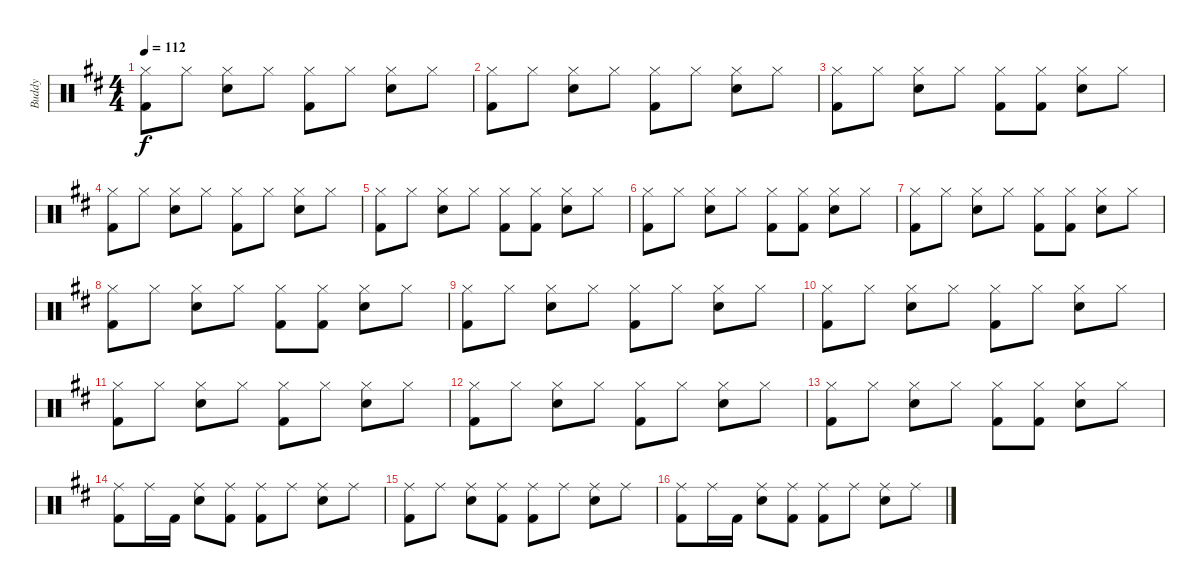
\track ("Buddy " "Buddy ") {instrument percussion}
\staff {score}
\articulation defaults
\ts (4 4)
\tempo 112
\clef neutral
\ks d
("Hi-Hat (closed)" "Kick (hit) 2").8{dy f} "Hi-Hat (closed)".8 ("Hi-Hat (closed)" "Snare (hit) 2").8 "Hi-Hat (closed)".8 ("Hi-Hat (closed)" "Kick (hit) 2").8 "Hi-Hat (closed)".8 ("Hi-Hat (closed)" "Snare (hit) 2").8 "Hi-Hat (closed)".8 |
("Hi-Hat (closed)" "Kick (hit) 2").8 "Hi-Hat (closed)".8 ("Hi-Hat (closed)" "Snare (hit) 2").8 "Hi-Hat (closed)".8 ("Hi-Hat (closed)" "Kick (hit) 2").8 "Hi-Hat (closed)".8 ("Hi-Hat (closed)" "Snare (hit) 2").8 "Hi-Hat (closed)".8 |
("Hi-Hat (closed)" "Kick (hit) 2").8 "Hi-Hat (closed)".8 ("Hi-Hat (closed)" "Snare (hit) 2").8 "Hi-Hat (closed)".8 ("Hi-Hat (closed)" "Kick (hit) 2").8 ("Hi-Hat (closed)" "Kick (hit) 2").8 ("Hi-Hat (closed)" "Snare (hit) 2").8 "Hi-Hat (closed)".8 |
("Hi-Hat (closed)" "Kick (hit) 2").8 "Hi-Hat (closed)".8 ("Hi-Hat (closed)" "Snare (hit) 2").8 "Hi-Hat (closed)".8 ("Hi-Hat (closed)" "Kick (hit) 2").8 "Hi-Hat (closed)".8 ("Hi-Hat (closed)" "Snare (hit) 2").8 "Hi-Hat (closed)".8 |
("Hi-Hat (closed)" "Kick (hit) 2").8 "Hi-Hat (closed)".8 ("Hi-Hat (closed)" "Snare (hit) 2").8 "Hi-Hat (closed)".8 ("Hi-Hat (closed)" "Kick (hit) 2").8 ("Hi-Hat (closed)" "Kick (hit) 2").8 ("Hi-Hat (closed)" "Snare (hit) 2").8 "Hi-Hat (closed)".8 |
("Hi-Hat (closed)" "Kick (hit) 2").8 "Hi-Hat (closed)".8 ("Hi-Hat (closed)" "Snare (hit) 2").8 "Hi-Hat (closed)".8 ("Hi-Hat (closed)" "Kick (hit) 2").8 ("Hi-Hat (closed)" "Kick (hit) 2").8 ("Hi-Hat (closed)" "Snare (hit) 2").8 "Hi-Hat (closed)".8 |
("Hi-Hat (closed)" "Kick (hit) 2").8 "Hi-Hat (closed)".8 ("Hi-Hat (closed)" "Snare (hit) 2").8 "Hi-Hat (closed)".8 ("Hi-Hat (closed)" "Kick (hit) 2").8 ("Hi-Hat (closed)" "Kick (hit) 2").8 ("Hi-Hat (closed)" "Snare (hit) 2").8 "Hi-Hat (closed)".8 |
("Hi-Hat (closed)" "Kick (hit) 2").8 "Hi-Hat (closed)".8 ("Hi-Hat (closed)" "Snare (hit) 2").8 "Hi-Hat (closed)".8 ("Hi-Hat (closed)" "Kick (hit) 2").8 ("Hi-Hat (closed)" "Kick (hit) 2").8 ("Hi-Hat (closed)" "Snare (hit) 2").8 "Hi-Hat (closed)".8 |
("Hi-Hat (closed)" "Kick (hit) 2").8 "Hi-Hat (closed)".8 ("Hi-Hat (closed)" "Snare (hit) 2").8 "Hi-Hat (closed)".8 ("Hi-Hat (closed)" "Kick (hit) 2").8 "Hi-Hat (closed)".8 ("Hi-Hat (closed)" "Snare (hit) 2").8 "Hi-Hat (closed)".8 |
("Hi-Hat (closed)" "Kick (hit) 2").8 "Hi-Hat (closed)".8 ("Hi-Hat (closed)" "Snare (hit) 2").8 "Hi-Hat (closed)".8 ("Hi-Hat (closed)" "Kick (hit) 2").8 "Hi-Hat (closed)".8 ("Hi-Hat (closed)" "Snare (hit) 2").8 "Hi-Hat (closed)".8 |
("Hi-Hat (closed)" "Kick (hit) 2").8 "Hi-Hat (closed)".8 ("Hi-Hat (closed)" "Snare (hit) 2").8 "Hi-Hat (closed)".8 ("Hi-Hat (closed)" "Kick (hit) 2").8 "Hi-Hat (closed)".8 ("Hi-Hat (closed)" "Snare (hit) 2").8 "Hi-Hat (closed)".8 |
("Hi-Hat (closed)" "Kick (hit) 2").8 "Hi-Hat (closed)".8 ("Hi-Hat (closed)" "Snare (hit) 2").8 "Hi-Hat (closed)".8 ("Hi-Hat (closed)" "Kick (hit) 2").8 "Hi-Hat (closed)".8 ("Hi-Hat (closed)" "Snare (hit) 2").8 "Hi-Hat (closed)".8 |
("Hi-Hat (closed)" "Kick (hit) 2").8 "Hi-Hat (closed)".8 ("Hi-Hat (closed)" "Snare (hit) 2").8 "Hi-Hat (closed)".8 ("Hi-Hat (closed)" "Kick (hit) 2").8 ("Hi-Hat (closed)" "Kick (hit) 2").8 ("Hi-Hat (closed)" "Snare (hit) 2").8 "Hi-Hat (closed)".8 |
("Ride (middle)" "Kick (hit) 2").8 "Ride (middle)".16 "Kick (hit) 2".16 ("Ride (middle)" "Snare (hit) 2").8 ("Ride (middle)" "Kick (hit) 2").8 ("Ride (middle)" "Kick (hit) 2").8 "Ride (middle)".8 ("Ride (middle)" "Snare (hit) 2").8 "Ride (middle)".8 |
("Ride (middle)" "Kick (hit) 2").8 "Ride (middle)".8 ("Ride (middle)" "Snare (hit) 2").8 ("Ride (middle)" "Kick (hit) 2").8 ("Ride (middle)" "Kick (hit) 2").8 "Ride (middle)".8 ("Ride (middle)" "Snare (hit) 2").8 "Ride (middle)".8 |
("Ride (middle)" "Kick (hit) 2").8 "Ride (middle)".16 "Kick (hit) 2".16 ("Ride (middle)" "Snare (hit) 2").8 ("Ride (middle)" "Kick (hit) 2").8 ("Ride (middle)" "Kick (hit) 2").8 "Ride (middle)".8 ("Ride (middle)" "Snare (hit) 2").8 "Ride (middle)".8
